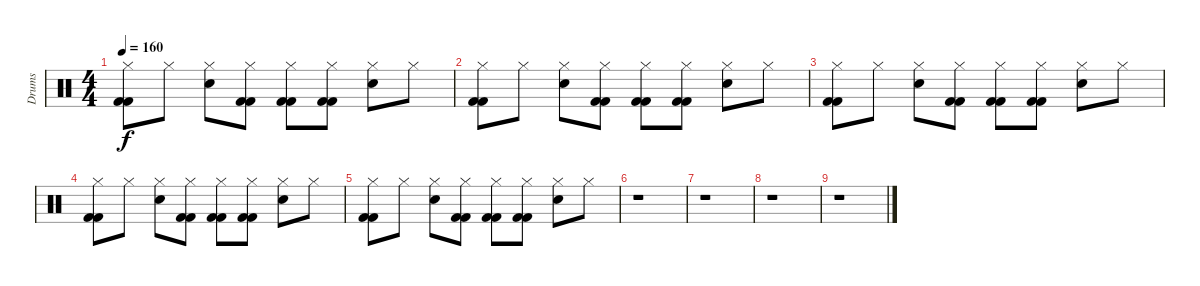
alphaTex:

\track ("Drums" "Drums") {instrument percussion}
\staff {score}
\articulation defaults
\ts (4 4)
\tempo 160
\clef neutral
\ks c
("Hi-Hat (closed)" "Kick (hit) 2" "Kick (hit) 2").8{dy f} "Hi-Hat (closed)".8 ("Hi-Hat (closed)" "Electric Snare (hit)").8 ("Hi-Hat (closed)" "Kick (hit) 2" "Kick (hit) 2").8 ("Hi-Hat (closed)" "Kick (hit) 2" "Kick (hit) 2").8 ("Hi-Hat (closed)" "Kick (hit) 2" "Kick (hit) 2").8 ("Hi-Hat (closed)" "Electric Snare (hit)").8 "Hi-Hat (closed)".8 |
("Hi-Hat (closed)" "Kick (hit) 2" "Kick (hit) 2").8 "Hi-Hat (closed)".8 ("Hi-Hat (closed)" "Electric Snare (hit)").8 ("Hi-Hat (closed)" "Kick (hit) 2" "Kick (hit) 2").8 ("Hi-Hat (closed)" "Kick (hit) 2" "Kick (hit) 2").8 ("Hi-Hat (closed)" "Kick (hit) 2" "Kick (hit) 2").8 ("Hi-Hat (closed)" "Electric Snare (hit)").8 "Hi-Hat (closed)".8 |
("Hi-Hat (closed)" "Kick (hit) 2" "Kick (hit) 2").8 "Hi-Hat (closed)".8 ("Hi-Hat (closed)" "Electric Snare (hit)").8 ("Hi-Hat (closed)" "Kick (hit) 2" "Kick (hit) 2").8 ("Hi-Hat (closed)" "Kick (hit) 2" "Kick (hit) 2").8 ("Hi-Hat (closed)" "Kick (hit) 2" "Kick (hit) 2").8 ("Hi-Hat (closed)" "Electric Snare (hit)").8 "Hi-Hat (closed)".8 |
("Hi-Hat (closed)" "Kick (hit) 2" "Kick (hit) 2").8 "Hi-Hat (closed)".8 ("Hi-Hat (closed)" "Electric Snare (hit)").8 ("Hi-Hat (closed)" "Kick (hit) 2" "Kick (hit) 2").8 ("Hi-Hat (closed)" "Kick (hit) 2" "Kick (hit) 2").8 ("Hi-Hat (closed)" "Kick (hit) 2" "Kick (hit) 2").8 ("Hi-Hat (closed)" "Electric Snare (hit)").8 "Hi-Hat (closed)".8 |
("Hi-Hat (closed)" "Kick (hit) 2" "Kick (hit) 2").8 "Hi-Hat (closed)".8 ("Hi-Hat (closed)" "Electric Snare (hit)").8 ("Hi-Hat (closed)" "Kick (hit) 2" "Kick (hit) 2").8 ("Hi-Hat (closed)" "Kick (hit) 2" "Kick (hit) 2").8 ("Hi-Hat (closed)" "Kick (hit) 2" "Kick (hit) 2").8 ("Hi-Hat (closed)" "Electric Snare (hit)").8 "Hi-Hat (closed)".8 |
r.1 |
r.1 |
r.1 |
r.1
